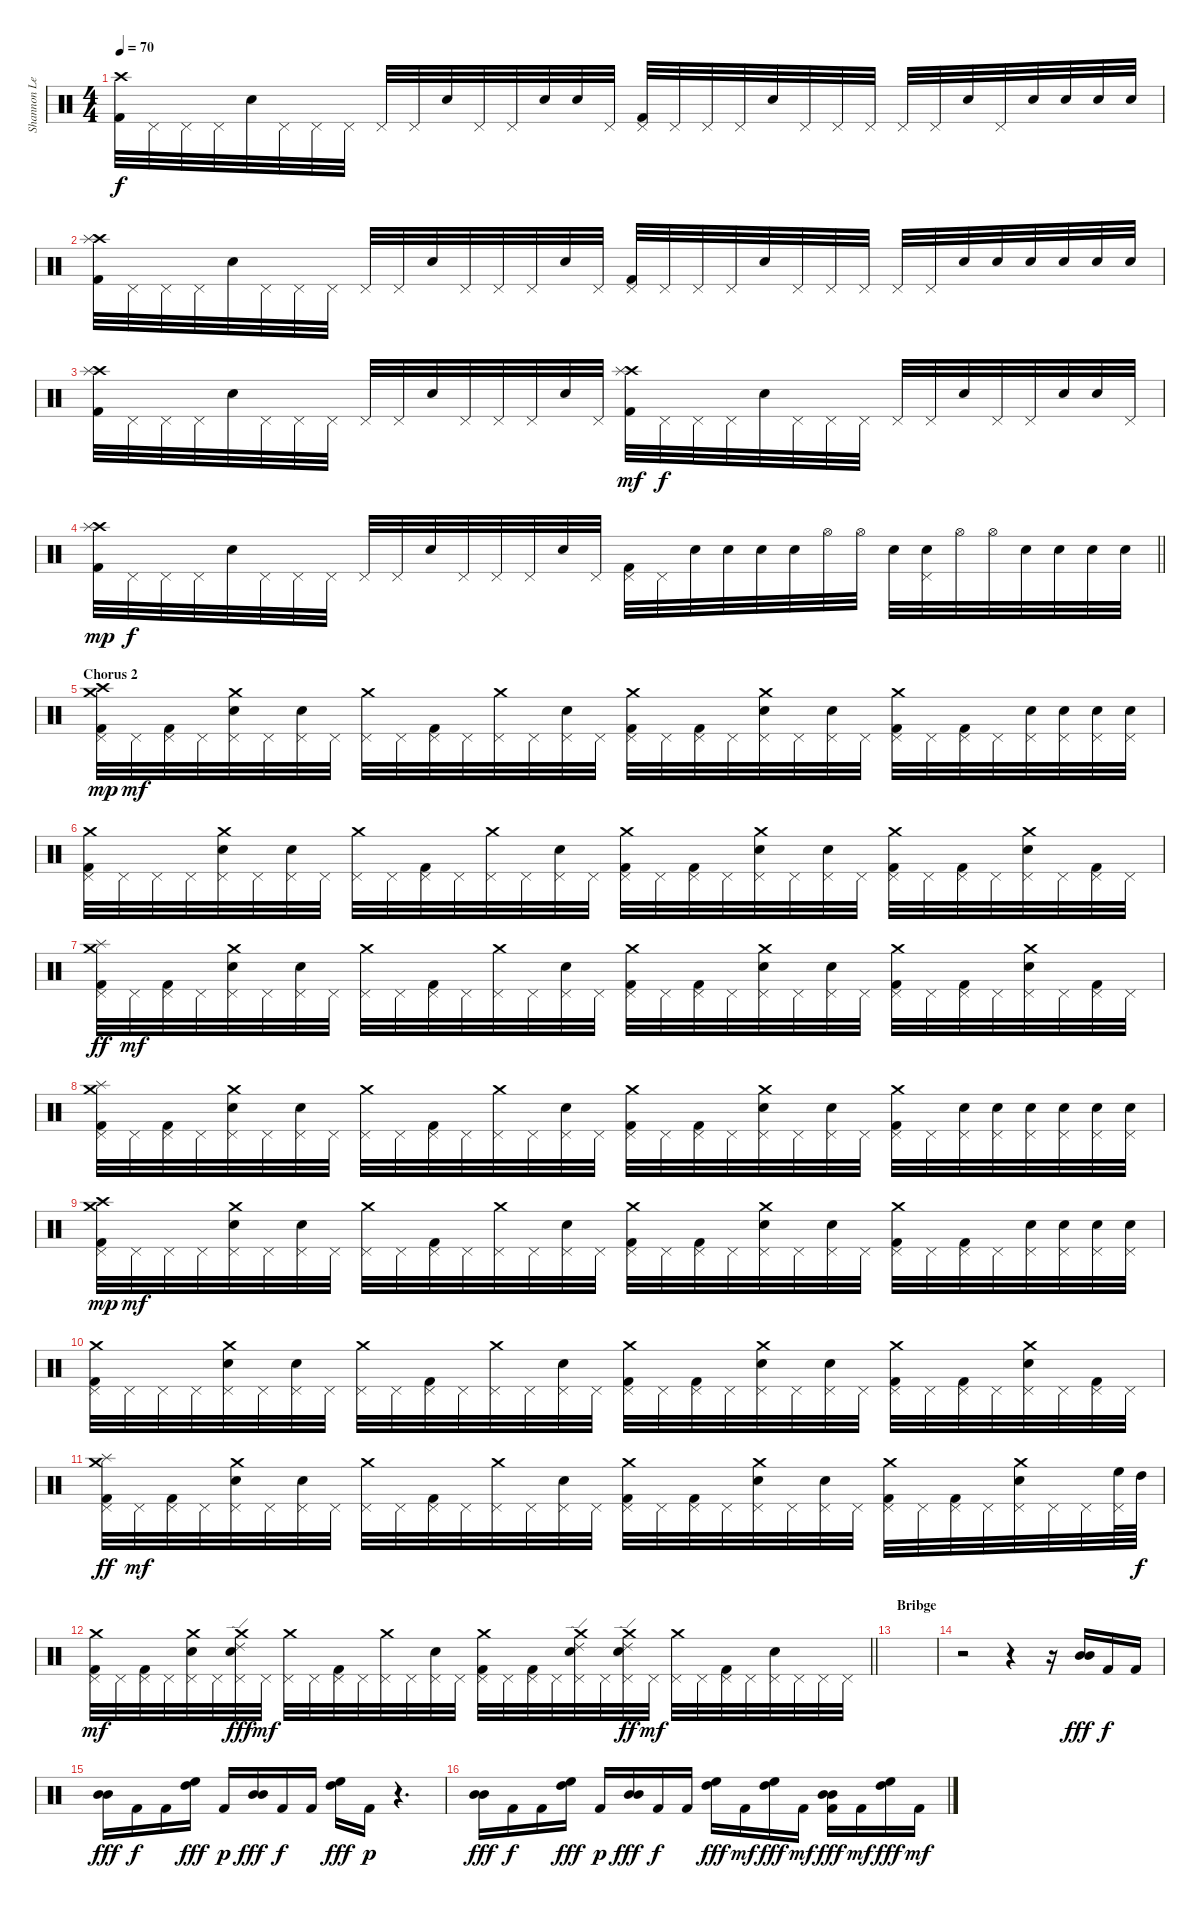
\track ("Shannon Leto - Drums" "Shannon Le") {instrument percussion}
\staff {score}
\articulation defaults
\ts (4 4)
\tempo 70
\clef neutral
\ks c
("Crash high (hit)" "Kick (hit) 2").32{dy f} "Pedal Hi-Hat (hit)".32 "Pedal Hi-Hat (hit)".32 "Pedal Hi-Hat (hit)".32 "Electric Snare (hit)".32 "Pedal Hi-Hat (hit)".32 "Pedal Hi-Hat (hit)".32 "Pedal Hi-Hat (hit)".32 "Pedal Hi-Hat (hit)".32 "Pedal Hi-Hat (hit)".32 "Electric Snare (hit)".32 "Pedal Hi-Hat (hit)".32 "Pedal Hi-Hat (hit)".32 "Electric Snare (hit)".32 "Electric Snare (hit)".32 "Pedal Hi-Hat (hit)".32 ("Pedal Hi-Hat (hit)" "Kick (hit) 2").32 "Pedal Hi-Hat (hit)".32 "Pedal Hi-Hat (hit)".32 "Pedal Hi-Hat (hit)".32 "Electric Snare (hit)".32 "Pedal Hi-Hat (hit)".32 "Pedal Hi-Hat (hit)".32 "Pedal Hi-Hat (hit)".32 "Pedal Hi-Hat (hit)".32 "Pedal Hi-Hat (hit)".32 "Electric Snare (hit)".32 "Pedal Hi-Hat (hit)".32 "Electric Snare (hit)".32 "Electric Snare (hit)".32 "Electric Snare (hit)".32 "Electric Snare (hit)".32 |
("Crash high (hit)" "Splash (hit)" "Kick (hit) 2").32 "Pedal Hi-Hat (hit)".32 "Pedal Hi-Hat (hit)".32 "Pedal Hi-Hat (hit)".32 "Electric Snare (hit)".32 "Pedal Hi-Hat (hit)".32 "Pedal Hi-Hat (hit)".32 "Pedal Hi-Hat (hit)".32 "Pedal Hi-Hat (hit)".32 "Pedal Hi-Hat (hit)".32 "Electric Snare (hit)".32 "Pedal Hi-Hat (hit)".32 "Pedal Hi-Hat (hit)".32 "Pedal Hi-Hat (hit)".32 "Electric Snare (hit)".32 "Pedal Hi-Hat (hit)".32 ("Pedal Hi-Hat (hit)" "Kick (hit) 2").32 "Pedal Hi-Hat (hit)".32 "Pedal Hi-Hat (hit)".32 "Pedal Hi-Hat (hit)".32 "Electric Snare (hit)".32 "Pedal Hi-Hat (hit)".32 "Pedal Hi-Hat (hit)".32 "Pedal Hi-Hat (hit)".32 "Pedal Hi-Hat (hit)".32 "Pedal Hi-Hat (hit)".32 "Electric Snare (hit)".32 "Electric Snare (hit)".32 "Electric Snare (hit)".32 "Electric Snare (hit)".32 "Electric Snare (hit)".32 "Electric Snare (hit)".32 |
("Crash high (hit)" "Splash (hit)" "Kick (hit) 2").32 "Pedal Hi-Hat (hit)".32 "Pedal Hi-Hat (hit)".32 "Pedal Hi-Hat (hit)".32 "Electric Snare (hit)".32 "Pedal Hi-Hat (hit)".32 "Pedal Hi-Hat (hit)".32 "Pedal Hi-Hat (hit)".32 "Pedal Hi-Hat (hit)".32 "Pedal Hi-Hat (hit)".32 "Electric Snare (hit)".32 "Pedal Hi-Hat (hit)".32 "Pedal Hi-Hat (hit)".32 "Pedal Hi-Hat (hit)".32 "Electric Snare (hit)".32 "Pedal Hi-Hat (hit)".32 ("Crash high (hit)" "Splash (hit)" "Kick (hit) 2").32{dy mf} "Pedal Hi-Hat (hit)".32{dy f} "Pedal Hi-Hat (hit)".32 "Pedal Hi-Hat (hit)".32 "Electric Snare (hit)".32 "Pedal Hi-Hat (hit)".32 "Pedal Hi-Hat (hit)".32 "Pedal Hi-Hat (hit)".32 "Pedal Hi-Hat (hit)".32 "Pedal Hi-Hat (hit)".32 "Electric Snare (hit)".32 "Pedal Hi-Hat (hit)".32 "Pedal Hi-Hat (hit)".32 "Electric Snare (hit)".32 "Electric Snare (hit)".32 "Pedal Hi-Hat (hit)".32 |
\barLineRight lightlight
("Crash high (hit)" "Splash (hit)" "Kick (hit) 2").32{dy mp} "Pedal Hi-Hat (hit)".32{dy f} "Pedal Hi-Hat (hit)".32 "Pedal Hi-Hat (hit)".32 "Electric Snare (hit)".32 "Pedal Hi-Hat (hit)".32 "Pedal Hi-Hat (hit)".32 "Pedal Hi-Hat (hit)".32 "Pedal Hi-Hat (hit)".32 "Pedal Hi-Hat (hit)".32 "Electric Snare (hit)".32 "Pedal Hi-Hat (hit)".32 "Pedal Hi-Hat (hit)".32 "Pedal Hi-Hat (hit)".32 "Electric Snare (hit)".32 "Pedal Hi-Hat (hit)".32 ("Pedal Hi-Hat (hit)" "Kick (hit) 2").32 "Pedal Hi-Hat (hit)".32 "Electric Snare (hit)".32 "Electric Snare (hit)".32 "Electric Snare (hit)".32 "Electric Snare (hit)".32 "Hi-Hat (open)".32 "Hi-Hat (open)".32 "Electric Snare (hit)".32 ("Pedal Hi-Hat (hit)" "Electric Snare (hit)").32 "Hi-Hat (open)".32 "Hi-Hat (open)".32 "Electric Snare (hit)".32 "Electric Snare (hit)".32 "Electric Snare (hit)".32 "Electric Snare (hit)".32 |
\section ("" "Chorus 2")
("Crash medium (hit)" "Pedal Hi-Hat (hit)" "Crash high (hit)" "Kick (hit) 2").32{dy mp} "Pedal Hi-Hat (hit)".32{dy mf} ("Pedal Hi-Hat (hit)" "Kick (hit) 2").32 "Pedal Hi-Hat (hit)".32 ("Crash medium (hit)" "Pedal Hi-Hat (hit)" "Electric Snare (hit)").32 "Pedal Hi-Hat (hit)".32 ("Pedal Hi-Hat (hit)" "Electric Snare (hit)").32 "Pedal Hi-Hat (hit)".32 ("Crash medium (hit)" "Pedal Hi-Hat (hit)").32 "Pedal Hi-Hat (hit)".32 ("Pedal Hi-Hat (hit)" "Kick (hit) 2").32 "Pedal Hi-Hat (hit)".32 ("Crash medium (hit)" "Pedal Hi-Hat (hit)").32 "Pedal Hi-Hat (hit)".32 ("Pedal Hi-Hat (hit)" "Electric Snare (hit)").32 "Pedal Hi-Hat (hit)".32 ("Crash medium (hit)" "Pedal Hi-Hat (hit)" "Kick (hit) 2").32 "Pedal Hi-Hat (hit)".32 ("Pedal Hi-Hat (hit)" "Kick (hit) 2").32 "Pedal Hi-Hat (hit)".32 ("Crash medium (hit)" "Pedal Hi-Hat (hit)" "Electric Snare (hit)").32 "Pedal Hi-Hat (hit)".32 ("Pedal Hi-Hat (hit)" "Electric Snare (hit)").32 "Pedal Hi-Hat (hit)".32 ("Crash medium (hit)" "Pedal Hi-Hat (hit)" "Kick (hit) 2").32 "Pedal Hi-Hat (hit)".32 ("Pedal Hi-Hat (hit)" "Kick (hit) 2").32 "Pedal Hi-Hat (hit)".32 ("Pedal Hi-Hat (hit)" "Electric Snare (hit)").32 ("Pedal Hi-Hat (hit)" "Electric Snare (hit)").32 ("Pedal Hi-Hat (hit)" "Electric Snare (hit)").32 ("Pedal Hi-Hat (hit)" "Electric Snare (hit)").32 |
("Crash medium (hit)" "Pedal Hi-Hat (hit)" "Kick (hit) 2").32 "Pedal Hi-Hat (hit)".32 "Pedal Hi-Hat (hit)".32 "Pedal Hi-Hat (hit)".32 ("Crash medium (hit)" "Pedal Hi-Hat (hit)" "Electric Snare (hit)").32 "Pedal Hi-Hat (hit)".32 ("Pedal Hi-Hat (hit)" "Electric Snare (hit)").32 "Pedal Hi-Hat (hit)".32 ("Crash medium (hit)" "Pedal Hi-Hat (hit)").32 "Pedal Hi-Hat (hit)".32 ("Pedal Hi-Hat (hit)" "Kick (hit) 2").32 "Pedal Hi-Hat (hit)".32 ("Crash medium (hit)" "Pedal Hi-Hat (hit)").32 "Pedal Hi-Hat (hit)".32 ("Pedal Hi-Hat (hit)" "Electric Snare (hit)").32 "Pedal Hi-Hat (hit)".32 ("Crash medium (hit)" "Pedal Hi-Hat (hit)" "Kick (hit) 2").32 "Pedal Hi-Hat (hit)".32 ("Pedal Hi-Hat (hit)" "Kick (hit) 2").32 "Pedal Hi-Hat (hit)".32 ("Crash medium (hit)" "Pedal Hi-Hat (hit)" "Electric Snare (hit)").32 "Pedal Hi-Hat (hit)".32 ("Pedal Hi-Hat (hit)" "Electric Snare (hit)").32 "Pedal Hi-Hat (hit)".32 ("Crash medium (hit)" "Pedal Hi-Hat (hit)" "Kick (hit) 2").32 "Pedal Hi-Hat (hit)".32 ("Pedal Hi-Hat (hit)" "Kick (hit) 2").32 "Pedal Hi-Hat (hit)".32 ("Crash medium (hit)" "Pedal Hi-Hat (hit)" "Electric Snare (hit)").32 "Pedal Hi-Hat (hit)".32 ("Pedal Hi-Hat (hit)" "Kick (hit) 2").32 "Pedal Hi-Hat (hit)".32 |
("Crash medium (hit)" "Pedal Hi-Hat (hit)" "Splash (hit)" "Kick (hit) 2").32{dy ff} "Pedal Hi-Hat (hit)".32{dy mf} ("Pedal Hi-Hat (hit)" "Kick (hit) 2").32 "Pedal Hi-Hat (hit)".32 ("Crash medium (hit)" "Pedal Hi-Hat (hit)" "Electric Snare (hit)").32 "Pedal Hi-Hat (hit)".32 ("Pedal Hi-Hat (hit)" "Electric Snare (hit)").32 "Pedal Hi-Hat (hit)".32 ("Crash medium (hit)" "Pedal Hi-Hat (hit)").32 "Pedal Hi-Hat (hit)".32 ("Pedal Hi-Hat (hit)" "Kick (hit) 2").32 "Pedal Hi-Hat (hit)".32 ("Crash medium (hit)" "Pedal Hi-Hat (hit)").32 "Pedal Hi-Hat (hit)".32 ("Pedal Hi-Hat (hit)" "Electric Snare (hit)").32 "Pedal Hi-Hat (hit)".32 ("Crash medium (hit)" "Pedal Hi-Hat (hit)" "Kick (hit) 2").32 "Pedal Hi-Hat (hit)".32 ("Pedal Hi-Hat (hit)" "Kick (hit) 2").32 "Pedal Hi-Hat (hit)".32 ("Crash medium (hit)" "Pedal Hi-Hat (hit)" "Electric Snare (hit)").32 "Pedal Hi-Hat (hit)".32 ("Pedal Hi-Hat (hit)" "Electric Snare (hit)").32 "Pedal Hi-Hat (hit)".32 ("Crash medium (hit)" "Pedal Hi-Hat (hit)" "Kick (hit) 2").32 "Pedal Hi-Hat (hit)".32 ("Pedal Hi-Hat (hit)" "Kick (hit) 2").32 "Pedal Hi-Hat (hit)".32 ("Crash medium (hit)" "Pedal Hi-Hat (hit)" "Electric Snare (hit)").32 "Pedal Hi-Hat (hit)".32 ("Pedal Hi-Hat (hit)" "Kick (hit) 2").32 "Pedal Hi-Hat (hit)".32 |
("Crash medium (hit)" "Pedal Hi-Hat (hit)" "Splash (hit)" "Kick (hit) 2").32 "Pedal Hi-Hat (hit)".32 ("Pedal Hi-Hat (hit)" "Kick (hit) 2").32 "Pedal Hi-Hat (hit)".32 ("Crash medium (hit)" "Pedal Hi-Hat (hit)" "Electric Snare (hit)").32 "Pedal Hi-Hat (hit)".32 ("Pedal Hi-Hat (hit)" "Electric Snare (hit)").32 "Pedal Hi-Hat (hit)".32 ("Crash medium (hit)" "Pedal Hi-Hat (hit)").32 "Pedal Hi-Hat (hit)".32 ("Pedal Hi-Hat (hit)" "Kick (hit) 2").32 "Pedal Hi-Hat (hit)".32 ("Crash medium (hit)" "Pedal Hi-Hat (hit)").32 "Pedal Hi-Hat (hit)".32 ("Pedal Hi-Hat (hit)" "Electric Snare (hit)").32 "Pedal Hi-Hat (hit)".32 ("Crash medium (hit)" "Pedal Hi-Hat (hit)" "Kick (hit) 2").32 "Pedal Hi-Hat (hit)".32 ("Pedal Hi-Hat (hit)" "Kick (hit) 2").32 "Pedal Hi-Hat (hit)".32 ("Crash medium (hit)" "Pedal Hi-Hat (hit)" "Electric Snare (hit)").32 "Pedal Hi-Hat (hit)".32 ("Pedal Hi-Hat (hit)" "Electric Snare (hit)").32 "Pedal Hi-Hat (hit)".32 ("Crash medium (hit)" "Pedal Hi-Hat (hit)" "Kick (hit) 2").32 "Pedal Hi-Hat (hit)".32 ("Pedal Hi-Hat (hit)" "Electric Snare (hit)").32 ("Pedal Hi-Hat (hit)" "Electric Snare (hit)").32 ("Pedal Hi-Hat (hit)" "Electric Snare (hit)").32 ("Pedal Hi-Hat (hit)" "Electric Snare (hit)").32 ("Pedal Hi-Hat (hit)" "Electric Snare (hit)").32 ("Pedal Hi-Hat (hit)" "Electric Snare (hit)").32 |
("Crash medium (hit)" "Pedal Hi-Hat (hit)" "Crash high (hit)" "Kick (hit) 2").32{dy mp} "Pedal Hi-Hat (hit)".32{dy mf} "Pedal Hi-Hat (hit)".32 "Pedal Hi-Hat (hit)".32 ("Crash medium (hit)" "Pedal Hi-Hat (hit)" "Electric Snare (hit)").32 "Pedal Hi-Hat (hit)".32 ("Pedal Hi-Hat (hit)" "Electric Snare (hit)").32 "Pedal Hi-Hat (hit)".32 ("Crash medium (hit)" "Pedal Hi-Hat (hit)").32 "Pedal Hi-Hat (hit)".32 ("Pedal Hi-Hat (hit)" "Kick (hit) 2").32 "Pedal Hi-Hat (hit)".32 ("Crash medium (hit)" "Pedal Hi-Hat (hit)").32 "Pedal Hi-Hat (hit)".32 ("Pedal Hi-Hat (hit)" "Electric Snare (hit)").32 "Pedal Hi-Hat (hit)".32 ("Crash medium (hit)" "Pedal Hi-Hat (hit)" "Kick (hit) 2").32 "Pedal Hi-Hat (hit)".32 ("Pedal Hi-Hat (hit)" "Kick (hit) 2").32 "Pedal Hi-Hat (hit)".32 ("Crash medium (hit)" "Pedal Hi-Hat (hit)" "Electric Snare (hit)").32 "Pedal Hi-Hat (hit)".32 ("Pedal Hi-Hat (hit)" "Electric Snare (hit)").32 "Pedal Hi-Hat (hit)".32 ("Crash medium (hit)" "Pedal Hi-Hat (hit)" "Kick (hit) 2").32 "Pedal Hi-Hat (hit)".32 ("Pedal Hi-Hat (hit)" "Kick (hit) 2").32 "Pedal Hi-Hat (hit)".32 ("Pedal Hi-Hat (hit)" "Electric Snare (hit)").32 ("Pedal Hi-Hat (hit)" "Electric Snare (hit)").32 ("Pedal Hi-Hat (hit)" "Electric Snare (hit)").32 ("Pedal Hi-Hat (hit)" "Electric Snare (hit)").32 |
("Crash medium (hit)" "Pedal Hi-Hat (hit)" "Kick (hit) 2").32 "Pedal Hi-Hat (hit)".32 "Pedal Hi-Hat (hit)".32 "Pedal Hi-Hat (hit)".32 ("Crash medium (hit)" "Pedal Hi-Hat (hit)" "Electric Snare (hit)").32 "Pedal Hi-Hat (hit)".32 ("Pedal Hi-Hat (hit)" "Electric Snare (hit)").32 "Pedal Hi-Hat (hit)".32 ("Crash medium (hit)" "Pedal Hi-Hat (hit)").32 "Pedal Hi-Hat (hit)".32 ("Pedal Hi-Hat (hit)" "Kick (hit) 2").32 "Pedal Hi-Hat (hit)".32 ("Crash medium (hit)" "Pedal Hi-Hat (hit)").32 "Pedal Hi-Hat (hit)".32 ("Pedal Hi-Hat (hit)" "Electric Snare (hit)").32 "Pedal Hi-Hat (hit)".32 ("Crash medium (hit)" "Pedal Hi-Hat (hit)" "Kick (hit) 2").32 "Pedal Hi-Hat (hit)".32 ("Pedal Hi-Hat (hit)" "Kick (hit) 2").32 "Pedal Hi-Hat (hit)".32 ("Crash medium (hit)" "Pedal Hi-Hat (hit)" "Electric Snare (hit)").32 "Pedal Hi-Hat (hit)".32 ("Pedal Hi-Hat (hit)" "Electric Snare (hit)").32 "Pedal Hi-Hat (hit)".32 ("Crash medium (hit)" "Pedal Hi-Hat (hit)" "Kick (hit) 2").32 "Pedal Hi-Hat (hit)".32 ("Pedal Hi-Hat (hit)" "Kick (hit) 2").32 "Pedal Hi-Hat (hit)".32 ("Crash medium (hit)" "Pedal Hi-Hat (hit)" "Electric Snare (hit)").32 "Pedal Hi-Hat (hit)".32 ("Pedal Hi-Hat (hit)" "Kick (hit) 2").32 "Pedal Hi-Hat (hit)".32 |
("Crash medium (hit)" "Pedal Hi-Hat (hit)" "Splash (hit)" "Kick (hit) 2").32{dy ff} "Pedal Hi-Hat (hit)".32{dy mf} ("Pedal Hi-Hat (hit)" "Kick (hit) 2").32 "Pedal Hi-Hat (hit)".32 ("Crash medium (hit)" "Pedal Hi-Hat (hit)" "Electric Snare (hit)").32 "Pedal Hi-Hat (hit)".32 ("Pedal Hi-Hat (hit)" "Electric Snare (hit)").32 "Pedal Hi-Hat (hit)".32 ("Crash medium (hit)" "Pedal Hi-Hat (hit)").32 "Pedal Hi-Hat (hit)".32 ("Pedal Hi-Hat (hit)" "Kick (hit) 2").32 "Pedal Hi-Hat (hit)".32 ("Crash medium (hit)" "Pedal Hi-Hat (hit)").32 "Pedal Hi-Hat (hit)".32 ("Pedal Hi-Hat (hit)" "Electric Snare (hit)").32 "Pedal Hi-Hat (hit)".32 ("Crash medium (hit)" "Pedal Hi-Hat (hit)" "Kick (hit) 2").32 "Pedal Hi-Hat (hit)".32 ("Pedal Hi-Hat (hit)" "Kick (hit) 2").32 "Pedal Hi-Hat (hit)".32 ("Crash medium (hit)" "Pedal Hi-Hat (hit)" "Electric Snare (hit)").32 "Pedal Hi-Hat (hit)".32 ("Pedal Hi-Hat (hit)" "Electric Snare (hit)").32 "Pedal Hi-Hat (hit)".32 ("Crash medium (hit)" "Pedal Hi-Hat (hit)" "Kick (hit) 2").32 "Pedal Hi-Hat (hit)".32 ("Pedal Hi-Hat (hit)" "Kick (hit) 2").32 "Pedal Hi-Hat (hit)".32 ("Crash medium (hit)" "Pedal Hi-Hat (hit)" "Electric Snare (hit)").32 "Pedal Hi-Hat (hit)".32 "Pedal Hi-Hat (hit)".32 ("Pedal Hi-Hat (hit)" "High Floor Tom (hit)").64 "High Tom (hit)".64{dy f} |
\barLineRight lightlight
("Crash medium (hit)" "Pedal Hi-Hat (hit)" "Kick (hit) 2").32{dy mf} "Pedal Hi-Hat (hit)".32 ("Pedal Hi-Hat (hit)" "Kick (hit) 2").32 "Pedal Hi-Hat (hit)".32 ("Crash medium (hit)" "Pedal Hi-Hat (hit)" "Electric Snare (hit)").32 "Pedal Hi-Hat (hit)".32 ("Crash medium (hit)" "Pedal Hi-Hat (hit)" "Electric Snare (hit)" "Ride (edge) 2").32{dy fff} "Pedal Hi-Hat (hit)".32{dy mf} ("Crash medium (hit)" "Pedal Hi-Hat (hit)").32 "Pedal Hi-Hat (hit)".32 ("Pedal Hi-Hat (hit)" "Kick (hit) 2").32 "Pedal Hi-Hat (hit)".32 ("Crash medium (hit)" "Pedal Hi-Hat (hit)").32 "Pedal Hi-Hat (hit)".32 ("Pedal Hi-Hat (hit)" "Electric Snare (hit)").32 "Pedal Hi-Hat (hit)".32 ("Crash medium (hit)" "Pedal Hi-Hat (hit)" "Kick (hit) 2").32 "Pedal Hi-Hat (hit)".32 ("Pedal Hi-Hat (hit)" "Kick (hit) 2").32 "Pedal Hi-Hat (hit)".32 ("Crash medium (hit)" "Pedal Hi-Hat (hit)" "Electric Snare (hit)" "Ride (edge) 2").32 "Pedal Hi-Hat (hit)".32 ("Crash medium (hit)" "Pedal Hi-Hat (hit)" "Electric Snare (hit)" "Ride (edge) 2").32{dy ff} "Pedal Hi-Hat (hit)".32{dy mf} ("Crash medium (hit)" "Pedal Hi-Hat (hit)").32 "Pedal Hi-Hat (hit)".32 ("Pedal Hi-Hat (hit)" "Kick (hit) 2").32 "Pedal Hi-Hat (hit)".32 ("Pedal Hi-Hat (hit)" "Electric Snare (hit)").32 "Pedal Hi-Hat (hit)".32 "Pedal Hi-Hat (hit)".32 "Pedal Hi-Hat (hit)".32 |
\section ("" "Bribge")
|
r.2 r.4 r.16 ("Mid Tom (hit)" "Mid Tom (hit)").16{bd 120 dy fff} "Kick (hit) 2".16{dy f} "Kick (hit) 2".16 |
("Mid Tom (hit)" "Mid Tom (hit)").16{bd 30 dy fff} "Kick (hit) 2".16{dy f} "Kick (hit) 2".16 ("High Floor Tom (hit)" "High Tom (hit)").16{bd 120 dy fff} "Kick (hit) 2".16{dy p} ("Mid Tom (hit)" "Mid Tom (hit)").16{bd 30 dy fff} "Kick (hit) 2".16{dy f} "Kick (hit) 2".16 ("High Floor Tom (hit)" "High Tom (hit)").16{bd 120 dy fff} "Kick (hit) 2".16{dy p} r.4{d} |
("Mid Tom (hit)" "Mid Tom (hit)").16{bd 30 dy fff} "Kick (hit) 2".16{dy f} "Kick (hit) 2".16 ("High Floor Tom (hit)" "High Tom (hit)").16{bd 120 dy fff} "Kick (hit) 2".16{dy p} ("Mid Tom (hit)" "Mid Tom (hit)").16{bd 30 dy fff} "Kick (hit) 2".16{dy f} "Kick (hit) 2".16 ("High Floor Tom (hit)" "High Tom (hit)").16{bd 120 dy fff} "Kick (hit) 2".16{dy mf} ("High Floor Tom (hit)" "High Tom (hit)").16{bd 120 dy fff} "Kick (hit) 2".16{dy mf} ("Mid Tom (hit)" "Mid Tom (hit)" "Kick (hit) 2").16{bd 30 dy fff} "Kick (hit) 2".16{dy mf} ("High Floor Tom (hit)" "High Tom (hit)").16{bd 120 dy fff} "Kick (hit) 2".16{dy mf}
